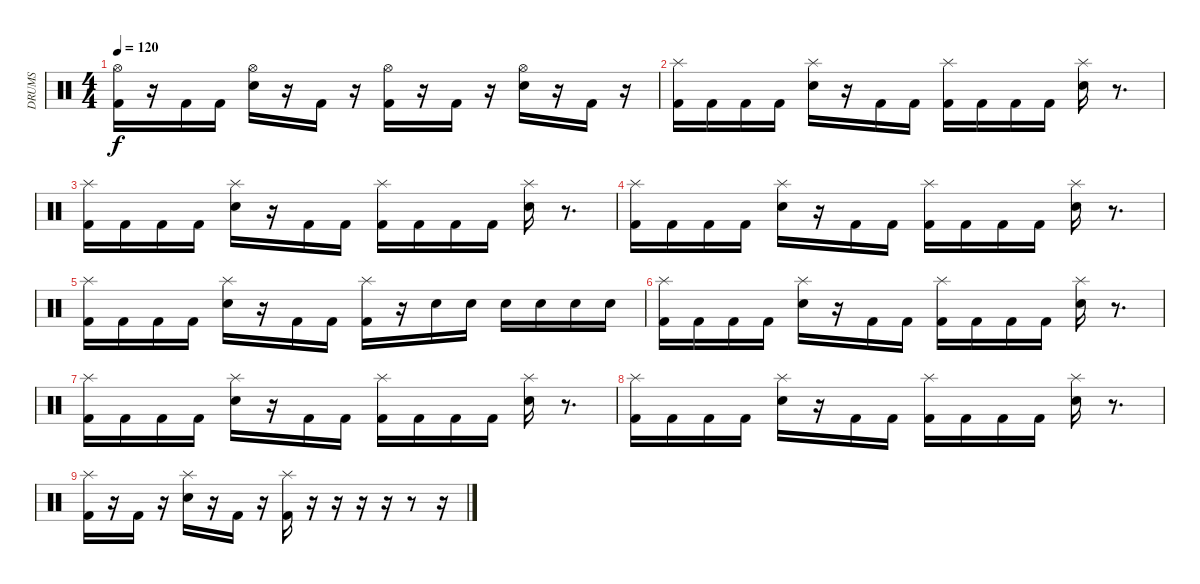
\track ("DRUMS" "DRUMS") {instrument percussion}
\staff {score}
\articulation defaults
\ts (4 4)
\tempo 120
\clef neutral
\ks c
("Hi-Hat (open)" "Kick (hit) 2").16{dy f} r.16 "Kick (hit) 2".16 "Kick (hit) 2".16 ("Hi-Hat (open)" "Electric Snare (hit)").16 r.16 "Kick (hit) 2".16 r.16 ("Hi-Hat (open)" "Kick (hit) 2").16 r.16 "Kick (hit) 2".16 r.16 ("Hi-Hat (open)" "Electric Snare (hit)").16 r.16 "Kick (hit) 2".16 r.16 |
("Splash (hit)" "Kick (hit) 2").16 "Kick (hit) 2".16 "Kick (hit) 2".16 "Kick (hit) 2".16 ("Splash (hit)" "Electric Snare (hit)").16 r.16 "Kick (hit) 2".16 "Kick (hit) 2".16 ("Splash (hit)" "Kick (hit) 2").16 "Kick (hit) 2".16 "Kick (hit) 2".16 "Kick (hit) 2".16 ("Splash (hit)" "Electric Snare (hit)").16 r.8{d} |
("Splash (hit)" "Kick (hit) 2").16 "Kick (hit) 2".16 "Kick (hit) 2".16 "Kick (hit) 2".16 ("Splash (hit)" "Electric Snare (hit)").16 r.16 "Kick (hit) 2".16 "Kick (hit) 2".16 ("Splash (hit)" "Kick (hit) 2").16 "Kick (hit) 2".16 "Kick (hit) 2".16 "Kick (hit) 2".16 ("Splash (hit)" "Electric Snare (hit)").16 r.8{d} |
("Splash (hit)" "Kick (hit) 2").16 "Kick (hit) 2".16 "Kick (hit) 2".16 "Kick (hit) 2".16 ("Splash (hit)" "Electric Snare (hit)").16 r.16 "Kick (hit) 2".16 "Kick (hit) 2".16 ("Splash (hit)" "Kick (hit) 2").16 "Kick (hit) 2".16 "Kick (hit) 2".16 "Kick (hit) 2".16 ("Splash (hit)" "Electric Snare (hit)").16 r.8{d} |
("Splash (hit)" "Kick (hit) 2").16 "Kick (hit) 2".16 "Kick (hit) 2".16 "Kick (hit) 2".16 ("Splash (hit)" "Electric Snare (hit)").16 r.16 "Kick (hit) 2".16 "Kick (hit) 2".16 ("Splash (hit)" "Kick (hit) 2").16 r.16 "Electric Snare (hit)".16 "Electric Snare (hit)".16 "Electric Snare (hit)".16 "Electric Snare (hit)".16 "Electric Snare (hit)".16 "Electric Snare (hit)".16 |
("Splash (hit)" "Kick (hit) 2").16 "Kick (hit) 2".16 "Kick (hit) 2".16 "Kick (hit) 2".16 ("Splash (hit)" "Electric Snare (hit)").16 r.16 "Kick (hit) 2".16 "Kick (hit) 2".16 ("Splash (hit)" "Kick (hit) 2").16 "Kick (hit) 2".16 "Kick (hit) 2".16 "Kick (hit) 2".16 ("Splash (hit)" "Electric Snare (hit)").16 r.8{d} |
("Splash (hit)" "Kick (hit) 2").16 "Kick (hit) 2".16 "Kick (hit) 2".16 "Kick (hit) 2".16 ("Splash (hit)" "Electric Snare (hit)").16 r.16 "Kick (hit) 2".16 "Kick (hit) 2".16 ("Splash (hit)" "Kick (hit) 2").16 "Kick (hit) 2".16 "Kick (hit) 2".16 "Kick (hit) 2".16 ("Splash (hit)" "Electric Snare (hit)").16 r.8{d} |
("Splash (hit)" "Kick (hit) 2").16 "Kick (hit) 2".16 "Kick (hit) 2".16 "Kick (hit) 2".16 ("Splash (hit)" "Electric Snare (hit)").16 r.16 "Kick (hit) 2".16 "Kick (hit) 2".16 ("Splash (hit)" "Kick (hit) 2").16 "Kick (hit) 2".16 "Kick (hit) 2".16 "Kick (hit) 2".16 ("Splash (hit)" "Electric Snare (hit)").16 r.8{d} |
("Splash (hit)" "Kick (hit) 2").16 r.16 "Kick (hit) 2".16 r.16 ("Splash (hit)" "Electric Snare (hit)").16 r.16 "Kick (hit) 2".16 r.16 ("Splash (hit)" "Kick (hit) 2").16 r.16 r.16 r.16 r.16 r.8 r.16
